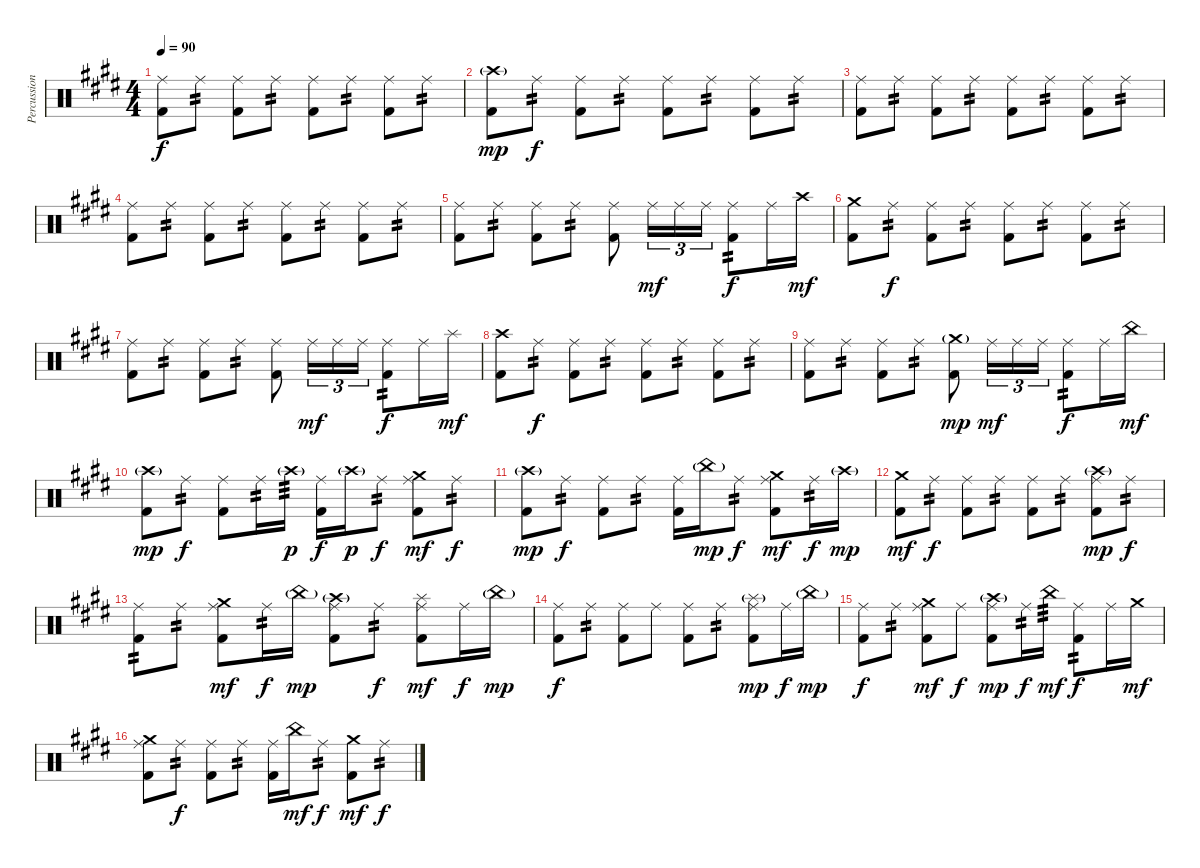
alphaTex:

\track ("Percussion" "Percussion") {instrument percussion}
\staff {score}
\articulation defaults
\ts (4 4)
\tempo 90
\clef neutral
\ks c#minor
("Ride (middle)" "Kick (hit) 2").8{dy f} "Ride (middle)".8{tp 2} ("Ride (middle)" "Kick (hit) 2").8 "Ride (middle)".8{tp 2} ("Ride (middle)" "Kick (hit) 2").8 "Ride (middle)".8{tp 2} ("Ride (middle)" "Kick (hit) 2").8 "Ride (middle)".8{tp 2} |
("Crash high (hit)"{g} "Kick (hit) 2").8{dy mp} "Ride (middle)".8{tp 2 dy f} ("Ride (middle)" "Kick (hit) 2").8 "Ride (middle)".8{tp 2} ("Ride (middle)" "Kick (hit) 2").8 "Ride (middle)".8{tp 2} ("Ride (middle)" "Kick (hit) 2").8 "Ride (middle)".8{tp 2} |
("Ride (middle)" "Kick (hit) 2").8 "Ride (middle)".8{tp 2} ("Ride (middle)" "Kick (hit) 2").8 "Ride (middle)".8{tp 2} ("Ride (middle)" "Kick (hit) 2").8 "Ride (middle)".8{tp 2} ("Ride (middle)" "Kick (hit) 2").8 "Ride (middle)".8{tp 2} |
("Ride (middle)" "Kick (hit) 2").8 "Ride (middle)".8{tp 2} ("Ride (middle)" "Kick (hit) 2").8 "Ride (middle)".8{tp 2} ("Ride (middle)" "Kick (hit) 2").8 "Ride (middle)".8{tp 2} ("Ride (middle)" "Kick (hit) 2").8 "Ride (middle)".8{tp 2} |
("Ride (middle)" "Kick (hit) 2").8 "Ride (middle)".8{tp 2} ("Ride (middle)" "Kick (hit) 2").8 "Ride (middle)".8{tp 2} ("Ride (middle)" "Kick (hit) 2").8 "Ride (middle)".16{tu (3 2) dy mf} "Ride (middle)".16{tu (3 2)} "Ride (middle)".16{tu (3 2)} ("Ride (middle)" "Kick (hit) 2").8{tp 2 dy f} "Ride (middle)".16 "Crash high (hit)".16{dy mf} |
("Crash medium (hit)" "Kick (hit) 2").8 "Ride (middle)".8{tp 2 dy f} ("Ride (middle)" "Kick (hit) 2").8 "Ride (middle)".8{tp 2} ("Ride (middle)" "Kick (hit) 2").8 "Ride (middle)".8{tp 2} ("Ride (middle)" "Kick (hit) 2").8 "Ride (middle)".8{tp 2} |
("Ride (middle)" "Kick (hit) 2").8 "Ride (middle)".8{tp 2} ("Ride (middle)" "Kick (hit) 2").8 "Ride (middle)".8{tp 2} ("Ride (middle)" "Kick (hit) 2").8 "Ride (middle)".16{tu (3 2) dy mf} "Ride (middle)".16{tu (3 2)} "Ride (middle)".16{tu (3 2)} ("Ride (middle)" "Kick (hit) 2").8{tp 2 dy f} "Ride (middle)".16 "Splash (hit)".16{dy mf} |
("Crash high (hit)" "Kick (hit) 2").8 "Ride (middle)".8{tp 2 dy f} ("Ride (middle)" "Kick (hit) 2").8 "Ride (middle)".8{tp 2} ("Ride (middle)" "Kick (hit) 2").8 "Ride (middle)".8{tp 2} ("Ride (middle)" "Kick (hit) 2").8 "Ride (middle)".8{tp 2} |
("Ride (middle)" "Kick (hit) 2").8 "Ride (middle)".8{tp 2} ("Ride (middle)" "Kick (hit) 2").8 "Ride (middle)".8{tp 2} ("Crash medium (hit)"{g} "Kick (hit) 2").8{dy mp} "Ride (middle)".16{tu (3 2) dy mf} "Ride (middle)".16{tu (3 2)} "Ride (middle)".16{tu (3 2)} ("Ride (middle)" "Kick (hit) 2").8{tp 2 dy f} "Ride (middle)".16 "China (hit)".16{dy mf} |
("Crash high (hit)"{g} "Kick (hit) 2").8{dy mp} "Ride (middle)".8{tp 2 dy f} ("Ride (middle)" "Kick (hit) 2").8 "Ride (middle)".16{tp 2} "Crash high (hit)"{g}.16{tp 3 dy p} ("Ride (middle)" "Kick (hit) 2").16{dy f} "Crash high (hit)"{g}.16{dy p} "Ride (middle)".8{tp 2 dy f} ("Ride (middle)" "Crash medium (hit)" "Kick (hit) 2").8{dy mf} "Ride (middle)".8{tp 2 dy f} |
("Crash high (hit)"{g} "Kick (hit) 2").8{dy mp} "Ride (middle)".8{tp 2 dy f} ("Ride (middle)" "Kick (hit) 2").8 "Ride (middle)".8{tp 2} ("Ride (middle)" "Kick (hit) 2").16 "China (hit)"{g}.16{dy mp} "Ride (middle)".8{tp 2 dy f} ("Ride (middle)" "Crash medium (hit)" "Kick (hit) 2").8{dy mf} "Ride (middle)".16{tp 2 dy f} "Crash high (hit)"{g}.16{dy mp} |
("Crash medium (hit)" "Kick (hit) 2").8{dy mf} "Ride (middle)".8{tp 2 dy f} ("Ride (middle)" "Kick (hit) 2").8 "Ride (middle)".8{tp 2} ("Ride (middle)" "Kick (hit) 2").8 "Ride (middle)".8{tp 2} ("Ride (middle)" "Crash high (hit)"{g} "Kick (hit) 2").8{dy mp} "Ride (middle)".8{tp 2 dy f} |
("Ride (middle)" "Kick (hit) 2").8{tp 2} "Ride (middle)".8{tp 2} ("Ride (middle)" "Crash medium (hit)" "Kick (hit) 2").8{dy mf} "Ride (middle)".16{tp 2 dy f} "China (hit)"{g}.16{dy mp} ("Ride (middle)" "Crash high (hit)"{g} "Kick (hit) 2").8 "Ride (middle)".8{tp 2 dy f} ("Ride (middle)" "Splash (hit)" "Kick (hit) 2").8{dy mf} "Ride (middle)".16{dy f} "China (hit)"{g}.16{dy mp} |
("Ride (middle)" "Kick (hit) 2").8{dy f} "Ride (middle)".8{tp 2} ("Ride (middle)" "Kick (hit) 2").8 "Ride (middle)".8 ("Ride (middle)" "Kick (hit) 2").8 "Ride (middle)".8{tp 2} ("Ride (middle)" "Splash (hit)"{g} "Kick (hit) 2").8{dy mp} "Ride (middle)".16{dy f} "China (hit)"{g}.16{dy mp} |
("Ride (middle)" "Kick (hit) 2").8{dy f} "Ride (middle)".8{tp 2} ("Ride (middle)" "Crash medium (hit)" "Kick (hit) 2").8{dy mf} "Ride (middle)".8{dy f} ("Ride (middle)" "Crash high (hit)"{g} "Kick (hit) 2").8{dy mp} "Ride (middle)".16{tp 2 dy f} "China (hit)".16{tp 3 dy mf} ("Ride (middle)" "Kick (hit) 2").8{tp 2 dy f} "Ride (middle)".16 "Crash medium (hit)".16{dy mf} |
("Ride (middle)" "Crash medium (hit)" "Kick (hit) 2").8 "Ride (middle)".8{tp 2 dy f} ("Ride (middle)" "Kick (hit) 2").8 "Ride (middle)".8{tp 2} ("Ride (middle)" "Kick (hit) 2").16 "China (hit)".16{dy mf} "Ride (middle)".8{tp 2 dy f} ("Crash medium (hit)" "Kick (hit) 2").8{dy mf} "Ride (middle)".8{tp 2 dy f}
